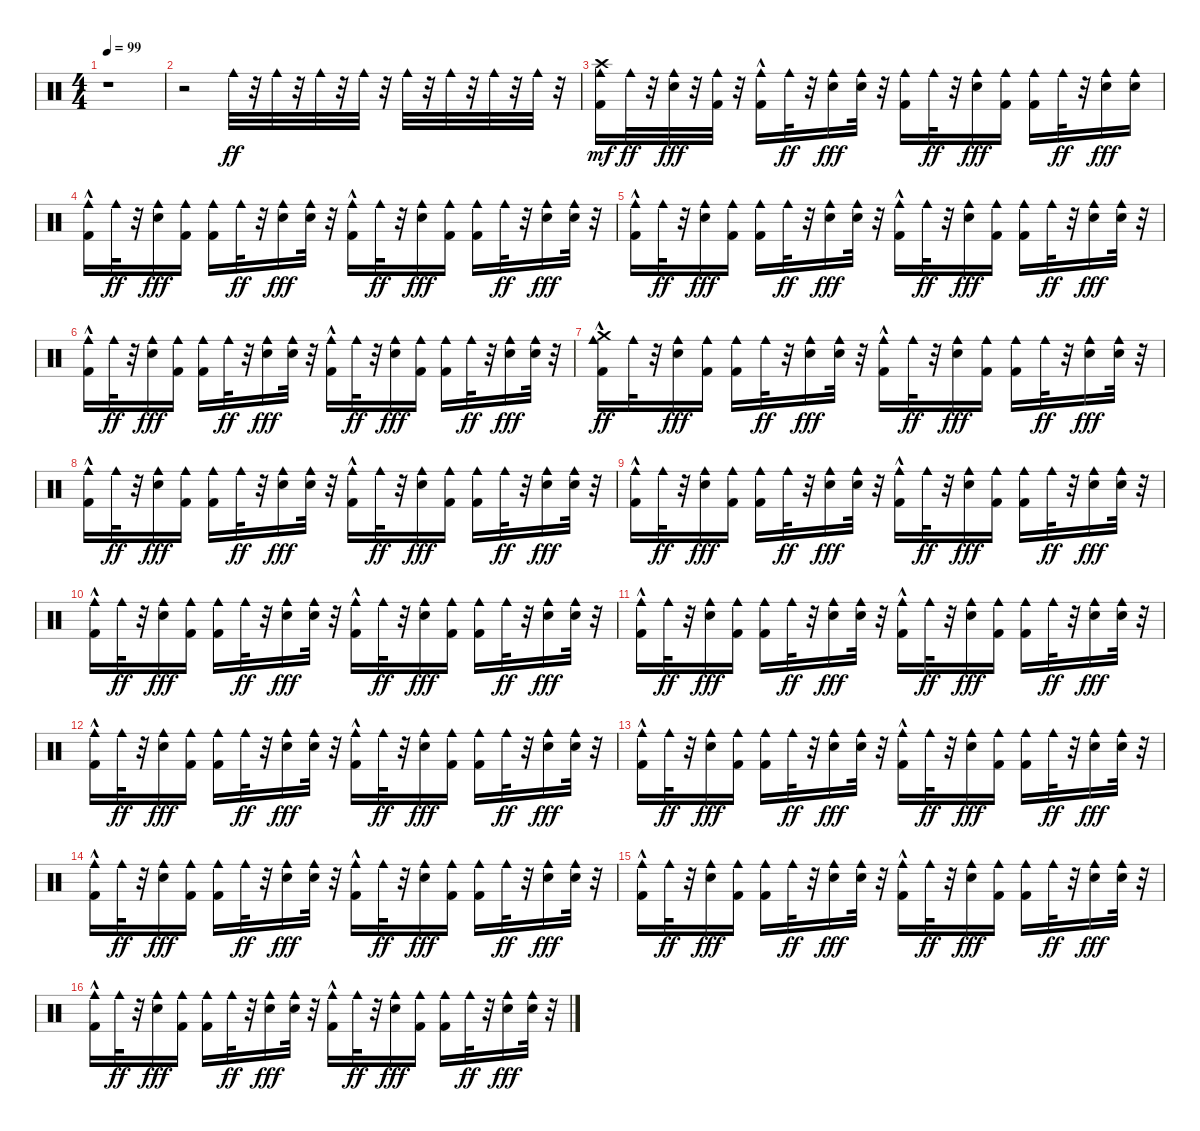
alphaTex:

\track "" {instrument percussion}
\staff {score}
\articulation defaults
\ts (4 4)
\tempo 99
\clef neutral
\ks c
r.1{dy ff} |
r.2 "Cowbell medium (hit)".32 r.32 "Cowbell medium (hit)".32 r.32 "Cowbell medium (hit)".32 r.32 "Cowbell medium (hit)".32 r.32 "Cowbell medium (hit)".32 r.32 "Cowbell medium (hit)".32 r.32 "Cowbell medium (hit)".32 r.32 "Cowbell medium (hit)".32 r.32 |
("Cowbell medium (hit)" "Kick (hit) 2" "Crash high (hit)").16{dy mf} "Cowbell medium (hit)".32{dy ff} r.32 ("Cowbell medium (hit)" "Electric Snare (hit)").32{dy fff} r.32 ("Cowbell medium (hit)" "Kick (hit) 2").32 r.32 ("Cowbell medium (hit)" "Kick (hit) 2"{hac}).16 "Cowbell medium (hit)".32{dy ff} r.32 ("Cowbell medium (hit)" "Electric Snare (hit)").16{dy fff} ("Cowbell medium (hit)" "Electric Snare (hit)").32 r.32 ("Cowbell medium (hit)" "Kick (hit) 2").16 "Cowbell medium (hit)".32{dy ff} r.32 ("Cowbell medium (hit)" "Electric Snare (hit)").16{dy fff} ("Cowbell medium (hit)" "Kick (hit) 2").16 ("Cowbell medium (hit)" "Kick (hit) 2").16 "Cowbell medium (hit)".32{dy ff} r.32 ("Cowbell medium (hit)" "Electric Snare (hit)").16{dy fff} ("Cowbell medium (hit)" "Electric Snare (hit)").16 |
("Cowbell medium (hit)" "Kick (hit) 2"{hac}).16 "Cowbell medium (hit)".32{dy ff} r.32 ("Cowbell medium (hit)" "Electric Snare (hit)").16{dy fff} ("Cowbell medium (hit)" "Kick (hit) 2").16 ("Cowbell medium (hit)" "Kick (hit) 2").16 "Cowbell medium (hit)".32{dy ff} r.32 ("Cowbell medium (hit)" "Electric Snare (hit)").16{dy fff} ("Cowbell medium (hit)" "Electric Snare (hit)").32 r.32 ("Cowbell medium (hit)" "Kick (hit) 2"{hac}).16 "Cowbell medium (hit)".32{dy ff} r.32 ("Cowbell medium (hit)" "Electric Snare (hit)").16{dy fff} ("Cowbell medium (hit)" "Kick (hit) 2").16 ("Cowbell medium (hit)" "Kick (hit) 2").16 "Cowbell medium (hit)".32{dy ff} r.32 ("Cowbell medium (hit)" "Electric Snare (hit)").16{dy fff} ("Cowbell medium (hit)" "Electric Snare (hit)").32 r.32 |
("Cowbell medium (hit)" "Kick (hit) 2"{hac}).16 "Cowbell medium (hit)".32{dy ff} r.32 ("Cowbell medium (hit)" "Electric Snare (hit)").16{dy fff} ("Cowbell medium (hit)" "Kick (hit) 2").16 ("Cowbell medium (hit)" "Kick (hit) 2").16 "Cowbell medium (hit)".32{dy ff} r.32 ("Cowbell medium (hit)" "Electric Snare (hit)").16{dy fff} ("Cowbell medium (hit)" "Electric Snare (hit)").32 r.32 ("Cowbell medium (hit)" "Kick (hit) 2"{hac}).16 "Cowbell medium (hit)".32{dy ff} r.32 ("Cowbell medium (hit)" "Electric Snare (hit)").16{dy fff} ("Cowbell medium (hit)" "Kick (hit) 2").16 ("Cowbell medium (hit)" "Kick (hit) 2").16 "Cowbell medium (hit)".32{dy ff} r.32 ("Cowbell medium (hit)" "Electric Snare (hit)").16{dy fff} ("Cowbell medium (hit)" "Electric Snare (hit)").32 r.32 |
("Cowbell medium (hit)" "Kick (hit) 2"{hac}).16 "Cowbell medium (hit)".32{dy ff} r.32 ("Cowbell medium (hit)" "Electric Snare (hit)").16{dy fff} ("Cowbell medium (hit)" "Kick (hit) 2").16 ("Cowbell medium (hit)" "Kick (hit) 2").16 "Cowbell medium (hit)".32{dy ff} r.32 ("Cowbell medium (hit)" "Electric Snare (hit)").16{dy fff} ("Cowbell medium (hit)" "Electric Snare (hit)").32 r.32 ("Cowbell medium (hit)" "Kick (hit) 2"{hac}).16 "Cowbell medium (hit)".32{dy ff} r.32 ("Cowbell medium (hit)" "Electric Snare (hit)").16{dy fff} ("Cowbell medium (hit)" "Kick (hit) 2").16 ("Cowbell medium (hit)" "Kick (hit) 2").16 "Cowbell medium (hit)".32{dy ff} r.32 ("Cowbell medium (hit)" "Electric Snare (hit)").16{dy fff} ("Cowbell medium (hit)" "Electric Snare (hit)").32 r.32 |
("Cowbell medium (hit)" "Kick (hit) 2"{hac} "Crash medium (hit)"{hac}).16{dy ff} "Cowbell medium (hit)".32 r.32 ("Cowbell medium (hit)" "Electric Snare (hit)").16{dy fff} ("Cowbell medium (hit)" "Kick (hit) 2").16 ("Cowbell medium (hit)" "Kick (hit) 2").16 "Cowbell medium (hit)".32{dy ff} r.32 ("Cowbell medium (hit)" "Electric Snare (hit)").16{dy fff} ("Cowbell medium (hit)" "Electric Snare (hit)").32 r.32 ("Cowbell medium (hit)" "Kick (hit) 2"{hac}).16 "Cowbell medium (hit)".32{dy ff} r.32 ("Cowbell medium (hit)" "Electric Snare (hit)").16{dy fff} ("Cowbell medium (hit)" "Kick (hit) 2").16 ("Cowbell medium (hit)" "Kick (hit) 2").16 "Cowbell medium (hit)".32{dy ff} r.32 ("Cowbell medium (hit)" "Electric Snare (hit)").16{dy fff} ("Cowbell medium (hit)" "Electric Snare (hit)").32 r.32 |
("Cowbell medium (hit)" "Kick (hit) 2"{hac}).16 "Cowbell medium (hit)".32{dy ff} r.32 ("Cowbell medium (hit)" "Electric Snare (hit)").16{dy fff} ("Cowbell medium (hit)" "Kick (hit) 2").16 ("Cowbell medium (hit)" "Kick (hit) 2").16 "Cowbell medium (hit)".32{dy ff} r.32 ("Cowbell medium (hit)" "Electric Snare (hit)").16{dy fff} ("Cowbell medium (hit)" "Electric Snare (hit)").32 r.32 ("Cowbell medium (hit)" "Kick (hit) 2"{hac}).16 "Cowbell medium (hit)".32{dy ff} r.32 ("Cowbell medium (hit)" "Electric Snare (hit)").16{dy fff} ("Cowbell medium (hit)" "Kick (hit) 2").16 ("Cowbell medium (hit)" "Kick (hit) 2").16 "Cowbell medium (hit)".32{dy ff} r.32 ("Cowbell medium (hit)" "Electric Snare (hit)").16{dy fff} ("Cowbell medium (hit)" "Electric Snare (hit)").32 r.32 |
("Cowbell medium (hit)" "Kick (hit) 2"{hac}).16 "Cowbell medium (hit)".32{dy ff} r.32 ("Cowbell medium (hit)" "Electric Snare (hit)").16{dy fff} ("Cowbell medium (hit)" "Kick (hit) 2").16 ("Cowbell medium (hit)" "Kick (hit) 2").16 "Cowbell medium (hit)".32{dy ff} r.32 ("Cowbell medium (hit)" "Electric Snare (hit)").16{dy fff} ("Cowbell medium (hit)" "Electric Snare (hit)").32 r.32 ("Cowbell medium (hit)" "Kick (hit) 2"{hac}).16 "Cowbell medium (hit)".32{dy ff} r.32 ("Cowbell medium (hit)" "Electric Snare (hit)").16{dy fff} ("Cowbell medium (hit)" "Kick (hit) 2").16 ("Cowbell medium (hit)" "Kick (hit) 2").16 "Cowbell medium (hit)".32{dy ff} r.32 ("Cowbell medium (hit)" "Electric Snare (hit)").16{dy fff} ("Cowbell medium (hit)" "Electric Snare (hit)").32 r.32 |
("Cowbell medium (hit)" "Kick (hit) 2"{hac}).16 "Cowbell medium (hit)".32{dy ff} r.32 ("Cowbell medium (hit)" "Electric Snare (hit)").16{dy fff} ("Cowbell medium (hit)" "Kick (hit) 2").16 ("Cowbell medium (hit)" "Kick (hit) 2").16 "Cowbell medium (hit)".32{dy ff} r.32 ("Cowbell medium (hit)" "Electric Snare (hit)").16{dy fff} ("Cowbell medium (hit)" "Electric Snare (hit)").32 r.32 ("Cowbell medium (hit)" "Kick (hit) 2"{hac}).16 "Cowbell medium (hit)".32{dy ff} r.32 ("Cowbell medium (hit)" "Electric Snare (hit)").16{dy fff} ("Cowbell medium (hit)" "Kick (hit) 2").16 ("Cowbell medium (hit)" "Kick (hit) 2").16 "Cowbell medium (hit)".32{dy ff} r.32 ("Cowbell medium (hit)" "Electric Snare (hit)").16{dy fff} ("Cowbell medium (hit)" "Electric Snare (hit)").32 r.32 |
("Cowbell medium (hit)" "Kick (hit) 2"{hac}).16 "Cowbell medium (hit)".32{dy ff} r.32 ("Cowbell medium (hit)" "Electric Snare (hit)").16{dy fff} ("Cowbell medium (hit)" "Kick (hit) 2").16 ("Cowbell medium (hit)" "Kick (hit) 2").16 "Cowbell medium (hit)".32{dy ff} r.32 ("Cowbell medium (hit)" "Electric Snare (hit)").16{dy fff} ("Cowbell medium (hit)" "Electric Snare (hit)").32 r.32 ("Cowbell medium (hit)" "Kick (hit) 2"{hac}).16 "Cowbell medium (hit)".32{dy ff} r.32 ("Cowbell medium (hit)" "Electric Snare (hit)").16{dy fff} ("Cowbell medium (hit)" "Kick (hit) 2").16 ("Cowbell medium (hit)" "Kick (hit) 2").16 "Cowbell medium (hit)".32{dy ff} r.32 ("Cowbell medium (hit)" "Electric Snare (hit)").16{dy fff} ("Cowbell medium (hit)" "Electric Snare (hit)").32 r.32 |
("Cowbell medium (hit)" "Kick (hit) 2"{hac}).16 "Cowbell medium (hit)".32{dy ff} r.32 ("Cowbell medium (hit)" "Electric Snare (hit)").16{dy fff} ("Cowbell medium (hit)" "Kick (hit) 2").16 ("Cowbell medium (hit)" "Kick (hit) 2").16 "Cowbell medium (hit)".32{dy ff} r.32 ("Cowbell medium (hit)" "Electric Snare (hit)").16{dy fff} ("Cowbell medium (hit)" "Electric Snare (hit)").32 r.32 ("Cowbell medium (hit)" "Kick (hit) 2"{hac}).16 "Cowbell medium (hit)".32{dy ff} r.32 ("Cowbell medium (hit)" "Electric Snare (hit)").16{dy fff} ("Cowbell medium (hit)" "Kick (hit) 2").16 ("Cowbell medium (hit)" "Kick (hit) 2").16 "Cowbell medium (hit)".32{dy ff} r.32 ("Cowbell medium (hit)" "Electric Snare (hit)").16{dy fff} ("Cowbell medium (hit)" "Electric Snare (hit)").32 r.32 |
("Cowbell medium (hit)" "Kick (hit) 2"{hac}).16 "Cowbell medium (hit)".32{dy ff} r.32 ("Cowbell medium (hit)" "Electric Snare (hit)").16{dy fff} ("Cowbell medium (hit)" "Kick (hit) 2").16 ("Cowbell medium (hit)" "Kick (hit) 2").16 "Cowbell medium (hit)".32{dy ff} r.32 ("Cowbell medium (hit)" "Electric Snare (hit)").16{dy fff} ("Cowbell medium (hit)" "Electric Snare (hit)").32 r.32 ("Cowbell medium (hit)" "Kick (hit) 2"{hac}).16 "Cowbell medium (hit)".32{dy ff} r.32 ("Cowbell medium (hit)" "Electric Snare (hit)").16{dy fff} ("Cowbell medium (hit)" "Kick (hit) 2").16 ("Cowbell medium (hit)" "Kick (hit) 2").16 "Cowbell medium (hit)".32{dy ff} r.32 ("Cowbell medium (hit)" "Electric Snare (hit)").16{dy fff} ("Cowbell medium (hit)" "Electric Snare (hit)").32 r.32 |
("Cowbell medium (hit)" "Kick (hit) 2"{hac}).16 "Cowbell medium (hit)".32{dy ff} r.32 ("Cowbell medium (hit)" "Electric Snare (hit)").16{dy fff} ("Cowbell medium (hit)" "Kick (hit) 2").16 ("Cowbell medium (hit)" "Kick (hit) 2").16 "Cowbell medium (hit)".32{dy ff} r.32 ("Cowbell medium (hit)" "Electric Snare (hit)").16{dy fff} ("Cowbell medium (hit)" "Electric Snare (hit)").32 r.32 ("Cowbell medium (hit)" "Kick (hit) 2"{hac}).16 "Cowbell medium (hit)".32{dy ff} r.32 ("Cowbell medium (hit)" "Electric Snare (hit)").16{dy fff} ("Cowbell medium (hit)" "Kick (hit) 2").16 ("Cowbell medium (hit)" "Kick (hit) 2").16 "Cowbell medium (hit)".32{dy ff} r.32 ("Cowbell medium (hit)" "Electric Snare (hit)").16{dy fff} ("Cowbell medium (hit)" "Electric Snare (hit)").32 r.32 |
("Cowbell medium (hit)" "Kick (hit) 2"{hac}).16 "Cowbell medium (hit)".32{dy ff} r.32 ("Cowbell medium (hit)" "Electric Snare (hit)").16{dy fff} ("Cowbell medium (hit)" "Kick (hit) 2").16 ("Cowbell medium (hit)" "Kick (hit) 2").16 "Cowbell medium (hit)".32{dy ff} r.32 ("Cowbell medium (hit)" "Electric Snare (hit)").16{dy fff} ("Cowbell medium (hit)" "Electric Snare (hit)").32 r.32 ("Cowbell medium (hit)" "Kick (hit) 2"{hac}).16 "Cowbell medium (hit)".32{dy ff} r.32 ("Cowbell medium (hit)" "Electric Snare (hit)").16{dy fff} ("Cowbell medium (hit)" "Kick (hit) 2").16 ("Cowbell medium (hit)" "Kick (hit) 2").16 "Cowbell medium (hit)".32{dy ff} r.32 ("Cowbell medium (hit)" "Electric Snare (hit)").16{dy fff} ("Cowbell medium (hit)" "Electric Snare (hit)").32 r.32 |
("Cowbell medium (hit)" "Kick (hit) 2"{hac}).16 "Cowbell medium (hit)".32{dy ff} r.32 ("Cowbell medium (hit)" "Electric Snare (hit)").16{dy fff} ("Cowbell medium (hit)" "Kick (hit) 2").16 ("Cowbell medium (hit)" "Kick (hit) 2").16 "Cowbell medium (hit)".32{dy ff} r.32 ("Cowbell medium (hit)" "Electric Snare (hit)").16{dy fff} ("Cowbell medium (hit)" "Electric Snare (hit)").32 r.32 ("Cowbell medium (hit)" "Kick (hit) 2"{hac}).16 "Cowbell medium (hit)".32{dy ff} r.32 ("Cowbell medium (hit)" "Electric Snare (hit)").16{dy fff} ("Cowbell medium (hit)" "Kick (hit) 2").16 ("Cowbell medium (hit)" "Kick (hit) 2").16 "Cowbell medium (hit)".32{dy ff} r.32 ("Cowbell medium (hit)" "Electric Snare (hit)").16{dy fff} ("Cowbell medium (hit)" "Electric Snare (hit)").32 r.32
